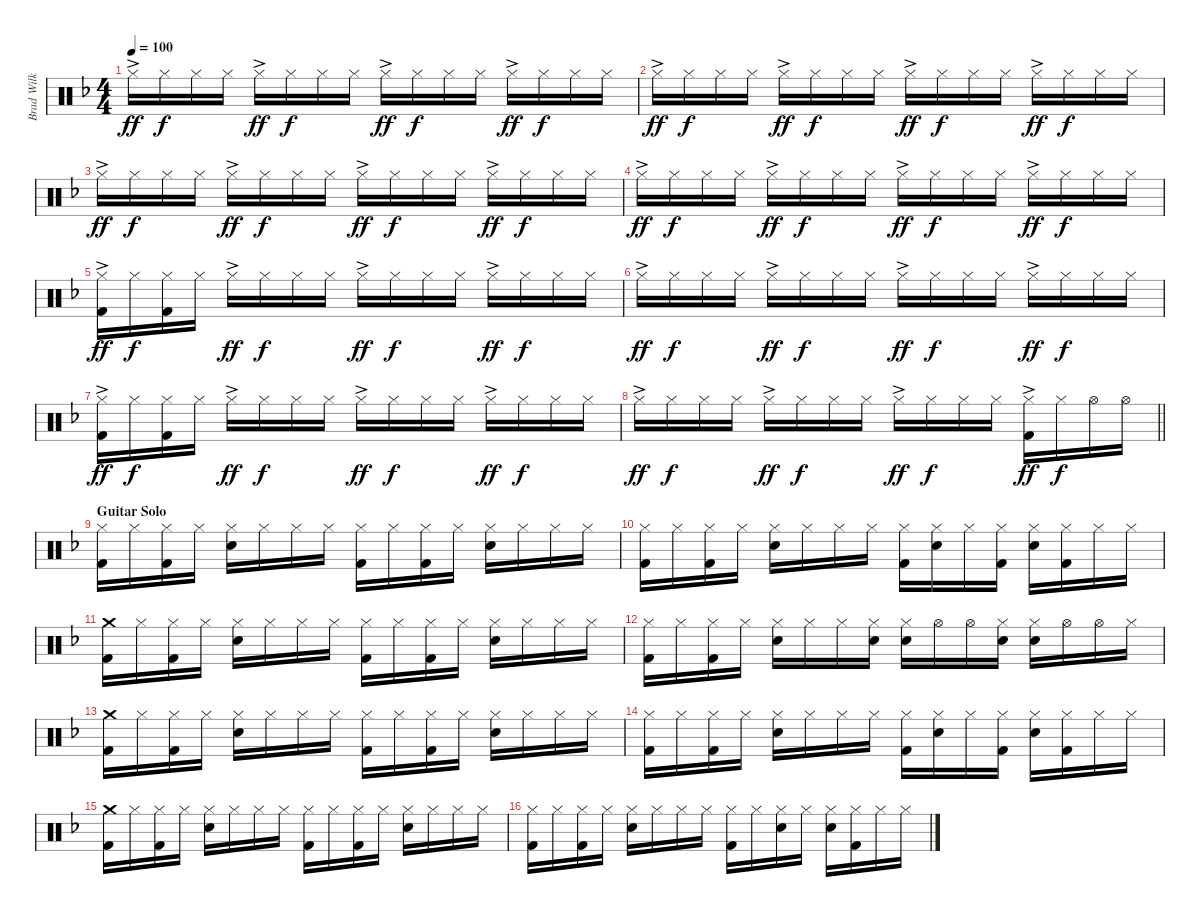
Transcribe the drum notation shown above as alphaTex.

\track ("Brad Wilk" "Brad Wilk") {instrument percussion}
\staff {score}
\articulation defaults
\ts (4 4)
\tempo 100
\clef neutral
\ks f "Hi-Hat (closed)"{ac}.16{dy ff} "Hi-Hat (closed)".16{dy f} "Hi-Hat (closed)".16 "Hi-Hat (closed)".16 "Hi-Hat (closed)"{ac}.16{dy ff} "Hi-Hat (closed)".16{dy f} "Hi-Hat (closed)".16 "Hi-Hat (closed)".16 "Hi-Hat (closed)"{ac}.16{dy ff} "Hi-Hat (closed)".16{dy f} "Hi-Hat (closed)".16 "Hi-Hat (closed)".16 "Hi-Hat (closed)"{ac}.16{dy ff} "Hi-Hat (closed)".16{dy f} "Hi-Hat (closed)".16 "Hi-Hat (closed)".16
|
"Hi-Hat (closed)"{ac}.16{dy ff} "Hi-Hat (closed)".16{dy f} "Hi-Hat (closed)".16 "Hi-Hat (closed)".16 "Hi-Hat (closed)"{ac}.16{dy ff} "Hi-Hat (closed)".16{dy f} "Hi-Hat (closed)".16 "Hi-Hat (closed)".16 "Hi-Hat (closed)"{ac}.16{dy ff} "Hi-Hat (closed)".16{dy f} "Hi-Hat (closed)".16 "Hi-Hat (closed)".16 "Hi-Hat (closed)"{ac}.16{dy ff} "Hi-Hat (closed)".16{dy f} "Hi-Hat (closed)".16 "Hi-Hat (closed)".16 |
"Hi-Hat (closed)"{ac}.16{dy ff} "Hi-Hat (closed)".16{dy f} "Hi-Hat (closed)".16 "Hi-Hat (closed)".16 "Hi-Hat (closed)"{ac}.16{dy ff} "Hi-Hat (closed)".16{dy f} "Hi-Hat (closed)".16 "Hi-Hat (closed)".16 "Hi-Hat (closed)"{ac}.16{dy ff} "Hi-Hat (closed)".16{dy f} "Hi-Hat (closed)".16 "Hi-Hat (closed)".16 "Hi-Hat (closed)"{ac}.16{dy ff} "Hi-Hat (closed)".16{dy f} "Hi-Hat (closed)".16 "Hi-Hat (closed)".16 |
"Hi-Hat (closed)"{ac}.16{dy ff} "Hi-Hat (closed)".16{dy f} "Hi-Hat (closed)".16 "Hi-Hat (closed)".16 "Hi-Hat (closed)"{ac}.16{dy ff} "Hi-Hat (closed)".16{dy f} "Hi-Hat (closed)".16 "Hi-Hat (closed)".16 "Hi-Hat (closed)"{ac}.16{dy ff} "Hi-Hat (closed)".16{dy f} "Hi-Hat (closed)".16 "Hi-Hat (closed)".16 "Hi-Hat (closed)"{ac}.16{dy ff} "Hi-Hat (closed)".16{dy f} "Hi-Hat (closed)".16 "Hi-Hat (closed)".16 |
("Hi-Hat (closed)"{ac} "Kick (hit) 2").16{dy ff} "Hi-Hat (closed)".16{dy f} ("Hi-Hat (closed)" "Kick (hit) 2").16 "Hi-Hat (closed)".16 "Hi-Hat (closed)"{ac}.16{dy ff} "Hi-Hat (closed)".16{dy f} "Hi-Hat (closed)".16 "Hi-Hat (closed)".16 "Hi-Hat (closed)"{ac}.16{dy ff} "Hi-Hat (closed)".16{dy f} "Hi-Hat (closed)".16 "Hi-Hat (closed)".16 "Hi-Hat (closed)"{ac}.16{dy ff} "Hi-Hat (closed)".16{dy f} "Hi-Hat (closed)".16 "Hi-Hat (closed)".16 |
"Hi-Hat (closed)"{ac}.16{dy ff} "Hi-Hat (closed)".16{dy f} "Hi-Hat (closed)".16 "Hi-Hat (closed)".16 "Hi-Hat (closed)"{ac}.16{dy ff} "Hi-Hat (closed)".16{dy f} "Hi-Hat (closed)".16 "Hi-Hat (closed)".16 "Hi-Hat (closed)"{ac}.16{dy ff} "Hi-Hat (closed)".16{dy f} "Hi-Hat (closed)".16 "Hi-Hat (closed)".16 "Hi-Hat (closed)"{ac}.16{dy ff} "Hi-Hat (closed)".16{dy f} "Hi-Hat (closed)".16 "Hi-Hat (closed)".16 |
("Hi-Hat (closed)"{ac} "Kick (hit) 2").16{dy ff} "Hi-Hat (closed)".16{dy f} ("Hi-Hat (closed)" "Kick (hit) 2").16 "Hi-Hat (closed)".16 "Hi-Hat (closed)"{ac}.16{dy ff} "Hi-Hat (closed)".16{dy f} "Hi-Hat (closed)".16 "Hi-Hat (closed)".16 "Hi-Hat (closed)"{ac}.16{dy ff} "Hi-Hat (closed)".16{dy f} "Hi-Hat (closed)".16 "Hi-Hat (closed)".16 "Hi-Hat (closed)"{ac}.16{dy ff} "Hi-Hat (closed)".16{dy f} "Hi-Hat (closed)".16 "Hi-Hat (closed)".16 |
\barLineRight lightlight "Hi-Hat (closed)"{ac}.16{dy ff} "Hi-Hat (closed)".16{dy f} "Hi-Hat (closed)".16 "Hi-Hat (closed)".16 "Hi-Hat (closed)"{ac}.16{dy ff} "Hi-Hat (closed)".16{dy f} "Hi-Hat (closed)".16 "Hi-Hat (closed)".16 "Hi-Hat (closed)"{ac}.16{dy ff} "Hi-Hat (closed)".16{dy f} "Hi-Hat (closed)".16 "Hi-Hat (closed)".16
("Hi-Hat (closed)"{ac} "Kick (hit) 2").16{dy ff} "Hi-Hat (closed)".16{dy f} "Hi-Hat (open)".16 "Hi-Hat (open)".16 |
\section ("" "Guitar Solo")
("Hi-Hat (closed)" "Kick (hit) 2").16 "Hi-Hat (closed)".16 ("Hi-Hat (closed)" "Kick (hit) 2").16 "Hi-Hat (closed)".16 ("Hi-Hat (closed)" "Electric Snare (hit)").16 "Hi-Hat (closed)".16 "Hi-Hat (closed)".16 "Hi-Hat (closed)".16 ("Hi-Hat (closed)" "Kick (hit) 2").16 "Hi-Hat (closed)".16 ("Hi-Hat (closed)" "Kick (hit) 2").16 "Hi-Hat (closed)".16 ("Hi-Hat (closed)" "Electric Snare (hit)").16 "Hi-Hat (closed)".16 "Hi-Hat (closed)".16 "Hi-Hat (closed)".16 |
("Hi-Hat (closed)" "Kick (hit) 2").16 "Hi-Hat (closed)".16 ("Hi-Hat (closed)" "Kick (hit) 2").16 "Hi-Hat (closed)".16 ("Hi-Hat (closed)" "Electric Snare (hit)").16 "Hi-Hat (closed)".16 "Hi-Hat (closed)".16 "Hi-Hat (closed)".16 ("Hi-Hat (closed)" "Kick (hit) 2").16 ("Hi-Hat (closed)" "Electric Snare (hit)").16 "Hi-Hat (closed)".16 ("Hi-Hat (closed)" "Kick (hit) 2").16 ("Hi-Hat (closed)" "Electric Snare (hit)").16 ("Hi-Hat (closed)" "Kick (hit) 2").16 "Hi-Hat (closed)".16 "Hi-Hat (closed)".16 |
("Crash medium (hit)" "Kick (hit) 2").16 "Hi-Hat (closed)".16 ("Hi-Hat (closed)" "Kick (hit) 2").16 "Hi-Hat (closed)".16 ("Hi-Hat (closed)" "Electric Snare (hit)").16 "Hi-Hat (closed)".16 "Hi-Hat (closed)".16 "Hi-Hat (closed)".16 ("Hi-Hat (closed)" "Kick (hit) 2").16 "Hi-Hat (closed)".16 ("Hi-Hat (closed)" "Kick (hit) 2").16 "Hi-Hat (closed)".16 ("Hi-Hat (closed)" "Electric Snare (hit)").16 "Hi-Hat (closed)".16 "Hi-Hat (closed)".16 "Hi-Hat (closed)".16 |
("Hi-Hat (closed)" "Kick (hit) 2").16 "Hi-Hat (closed)".16 ("Hi-Hat (closed)" "Kick (hit) 2").16 "Hi-Hat (closed)".16 ("Hi-Hat (closed)" "Electric Snare (hit)").16 "Hi-Hat (closed)".16 "Hi-Hat (closed)".16 ("Hi-Hat (closed)" "Electric Snare (hit)").16 ("Hi-Hat (closed)" "Electric Snare (hit)").16 "Hi-Hat (open)".16 "Hi-Hat (open)".16 ("Hi-Hat (closed)" "Electric Snare (hit)").16 ("Hi-Hat (closed)" "Electric Snare (hit)").16 "Hi-Hat (open)".16 "Hi-Hat (open)".16 "Hi-Hat (closed)".16 |
("Crash medium (hit)" "Kick (hit) 2").16 "Hi-Hat (closed)".16 ("Hi-Hat (closed)" "Kick (hit) 2").16 "Hi-Hat (closed)".16 ("Hi-Hat (closed)" "Electric Snare (hit)").16 "Hi-Hat (closed)".16 "Hi-Hat (closed)".16 "Hi-Hat (closed)".16 ("Hi-Hat (closed)" "Kick (hit) 2").16 "Hi-Hat (closed)".16 ("Hi-Hat (closed)" "Kick (hit) 2").16 "Hi-Hat (closed)".16 ("Hi-Hat (closed)" "Electric Snare (hit)").16 "Hi-Hat (closed)".16 "Hi-Hat (closed)".16 "Hi-Hat (closed)".16 |
("Hi-Hat (closed)" "Kick (hit) 2").16 "Hi-Hat (closed)".16 ("Hi-Hat (closed)" "Kick (hit) 2").16 "Hi-Hat (closed)".16 ("Hi-Hat (closed)" "Electric Snare (hit)").16 "Hi-Hat (closed)".16 "Hi-Hat (closed)".16 "Hi-Hat (closed)".16 ("Hi-Hat (closed)" "Kick (hit) 2").16 ("Hi-Hat (closed)" "Electric Snare (hit)").16 "Hi-Hat (closed)".16 ("Hi-Hat (closed)" "Kick (hit) 2").16 ("Hi-Hat (closed)" "Electric Snare (hit)").16 ("Hi-Hat (closed)" "Kick (hit) 2").16 "Hi-Hat (closed)".16 "Hi-Hat (closed)".16 |
("Crash medium (hit)" "Kick (hit) 2").16 "Hi-Hat (closed)".16 ("Hi-Hat (closed)" "Kick (hit) 2").16 "Hi-Hat (closed)".16 ("Hi-Hat (closed)" "Electric Snare (hit)").16 "Hi-Hat (closed)".16 "Hi-Hat (closed)".16 "Hi-Hat (closed)".16 ("Hi-Hat (closed)" "Kick (hit) 2").16 "Hi-Hat (closed)".16 ("Hi-Hat (closed)" "Kick (hit) 2").16 "Hi-Hat (closed)".16 ("Hi-Hat (closed)" "Electric Snare (hit)").16 "Hi-Hat (closed)".16 "Hi-Hat (closed)".16 "Hi-Hat (closed)".16 |
("Hi-Hat (closed)" "Kick (hit) 2").16 "Hi-Hat (closed)".16 ("Hi-Hat (closed)" "Kick (hit) 2").16 "Hi-Hat (closed)".16 ("Hi-Hat (closed)" "Electric Snare (hit)").16 "Hi-Hat (closed)".16 "Hi-Hat (closed)".16 "Hi-Hat (closed)".16 ("Hi-Hat (closed)" "Kick (hit) 2").16 "Hi-Hat (closed)".16 ("Hi-Hat (closed)" "Electric Snare (hit)").16 "Hi-Hat (closed)".16 ("Hi-Hat (closed)" "Electric Snare (hit)").16 ("Hi-Hat (closed)" "Kick (hit) 2").16 "Hi-Hat (closed)".16 "Hi-Hat (closed)".16
